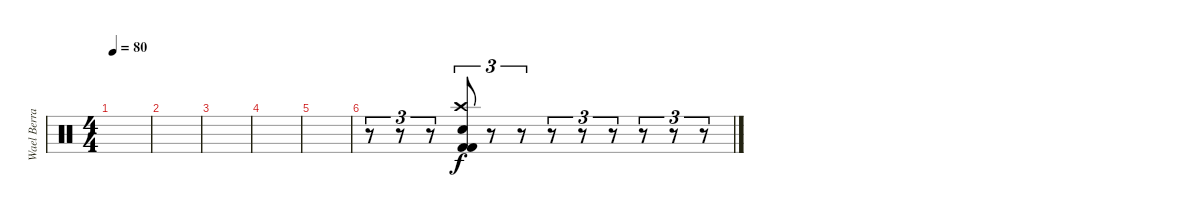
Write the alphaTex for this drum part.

\track ("Wael Berrais" "Wael Berra") {instrument percussion}
\staff {score}
\articulation defaults
\ts (4 4)
\tempo 80
\clef neutral
\ks c
|
|
|
|
|
r.8{tu (3 2)} r.8{tu (3 2)} r.8{tu (3 2)} ("Electric Snare (hit)" "Crash high (hit)" "Kick (hit) 2" "Kick (hit) 2").8{tu (3 2)} r.8{tu (3 2)} r.8{tu (3 2)} r.8{tu (3 2)} r.8{tu (3 2)} r.8{tu (3 2)} r.8{tu (3 2)} r.8{tu (3 2)} r.8{tu (3 2)}
